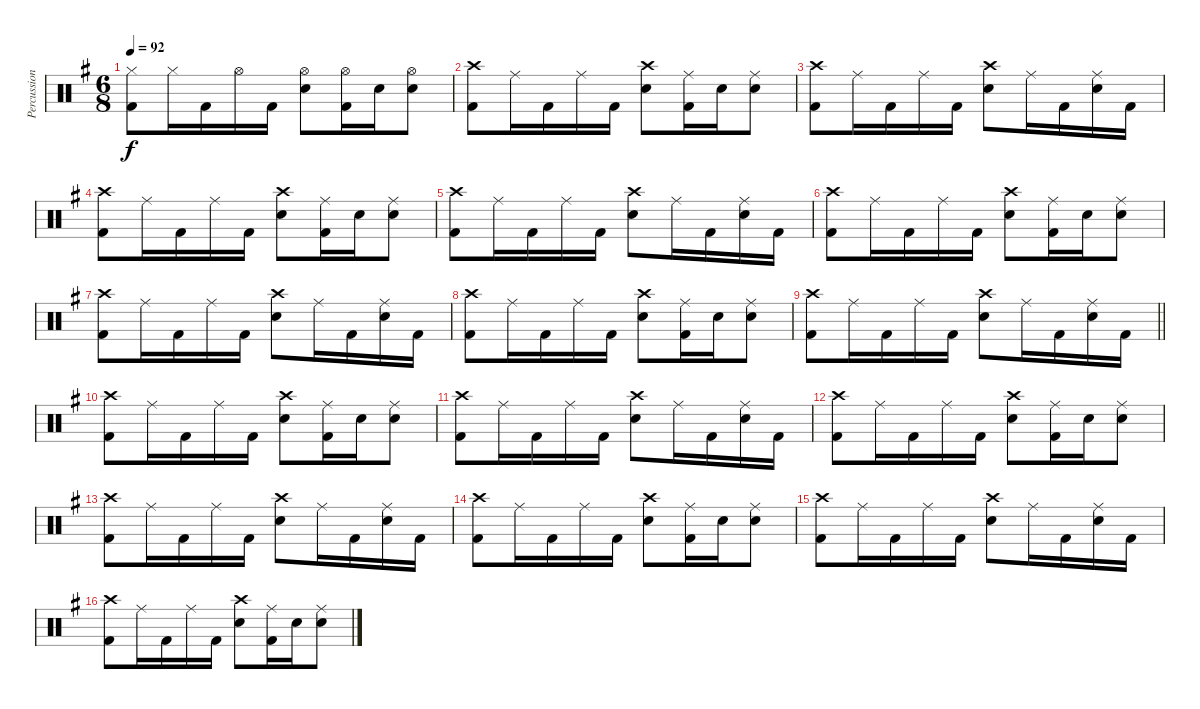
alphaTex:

\track ("Percussion" "Percussion") {instrument percussion}
\staff {score}
\articulation defaults
\ts (6 8)
\tempo 92
\clef neutral
\ks g
("Hi-Hat (closed)" "Kick (hit) 2").8{dy f} "Hi-Hat (closed)".16 "Kick (hit) 2".16 "Hi-Hat (open)".16 "Kick (hit) 2".16 ("Hi-Hat (open)" "Electric Snare (hit)").8 ("Hi-Hat (open)" "Kick (hit) 2").16 "Electric Snare (hit)".16 ("Electric Snare (hit)" "Hi-Hat (open)").8 |
("Crash high (hit)" "Kick (hit) 2").8 "Ride (middle)".16 "Kick (hit) 2".16 "Ride (middle)".16 "Kick (hit) 2".16 ("Electric Snare (hit)" "Crash high (hit)").8 ("Kick (hit) 2" "Ride (middle)").16 "Electric Snare (hit)".16 ("Electric Snare (hit)" "Ride (middle)").8 |
("Crash high (hit)" "Kick (hit) 2").8 "Ride (middle)".16 "Kick (hit) 2".16 "Ride (middle)".16 "Kick (hit) 2".16 ("Electric Snare (hit)" "Crash high (hit)").8 "Ride (middle)".16 "Kick (hit) 2".16 ("Electric Snare (hit)" "Ride (middle)").16 "Kick (hit) 2".16 |
("Crash high (hit)" "Kick (hit) 2").8 "Ride (middle)".16 "Kick (hit) 2".16 "Ride (middle)".16 "Kick (hit) 2".16 ("Electric Snare (hit)" "Crash high (hit)").8 ("Kick (hit) 2" "Ride (middle)").16 "Electric Snare (hit)".16 ("Electric Snare (hit)" "Ride (middle)").8 |
("Crash high (hit)" "Kick (hit) 2").8 "Ride (middle)".16 "Kick (hit) 2".16 "Ride (middle)".16 "Kick (hit) 2".16 ("Electric Snare (hit)" "Crash high (hit)").8 "Ride (middle)".16 "Kick (hit) 2".16 ("Electric Snare (hit)" "Ride (middle)").16 "Kick (hit) 2".16 |
("Crash high (hit)" "Kick (hit) 2").8 "Ride (middle)".16 "Kick (hit) 2".16 "Ride (middle)".16 "Kick (hit) 2".16 ("Electric Snare (hit)" "Crash high (hit)").8 ("Kick (hit) 2" "Ride (middle)").16 "Electric Snare (hit)".16 ("Electric Snare (hit)" "Ride (middle)").8 |
("Crash high (hit)" "Kick (hit) 2").8 "Ride (middle)".16 "Kick (hit) 2".16 "Ride (middle)".16 "Kick (hit) 2".16 ("Electric Snare (hit)" "Crash high (hit)").8 "Ride (middle)".16 "Kick (hit) 2".16 ("Electric Snare (hit)" "Ride (middle)").16 "Kick (hit) 2".16 |
("Crash high (hit)" "Kick (hit) 2").8 "Ride (middle)".16 "Kick (hit) 2".16 "Ride (middle)".16 "Kick (hit) 2".16 ("Electric Snare (hit)" "Crash high (hit)").8 ("Kick (hit) 2" "Ride (middle)").16 "Electric Snare (hit)".16 ("Electric Snare (hit)" "Ride (middle)").8 |
\barLineRight lightlight
("Crash high (hit)" "Kick (hit) 2").8 "Ride (middle)".16 "Kick (hit) 2".16 "Ride (middle)".16 "Kick (hit) 2".16 ("Electric Snare (hit)" "Crash high (hit)").8 "Ride (middle)".16 "Kick (hit) 2".16 ("Electric Snare (hit)" "Ride (middle)").16 "Kick (hit) 2".16 |
("Crash high (hit)" "Kick (hit) 2").8 "Ride (middle)".16 "Kick (hit) 2".16 "Ride (middle)".16 "Kick (hit) 2".16 ("Electric Snare (hit)" "Crash high (hit)").8 ("Kick (hit) 2" "Ride (middle)").16 "Electric Snare (hit)".16 ("Electric Snare (hit)" "Ride (middle)").8 |
("Crash high (hit)" "Kick (hit) 2").8 "Ride (middle)".16 "Kick (hit) 2".16 "Ride (middle)".16 "Kick (hit) 2".16 ("Electric Snare (hit)" "Crash high (hit)").8 "Ride (middle)".16 "Kick (hit) 2".16 ("Electric Snare (hit)" "Ride (middle)").16 "Kick (hit) 2".16 |
("Crash high (hit)" "Kick (hit) 2").8 "Ride (middle)".16 "Kick (hit) 2".16 "Ride (middle)".16 "Kick (hit) 2".16 ("Electric Snare (hit)" "Crash high (hit)").8 ("Kick (hit) 2" "Ride (middle)").16 "Electric Snare (hit)".16 ("Electric Snare (hit)" "Ride (middle)").8 |
("Crash high (hit)" "Kick (hit) 2").8 "Ride (middle)".16 "Kick (hit) 2".16 "Ride (middle)".16 "Kick (hit) 2".16 ("Electric Snare (hit)" "Crash high (hit)").8 "Ride (middle)".16 "Kick (hit) 2".16 ("Electric Snare (hit)" "Ride (middle)").16 "Kick (hit) 2".16 |
("Crash high (hit)" "Kick (hit) 2").8 "Ride (middle)".16 "Kick (hit) 2".16 "Ride (middle)".16 "Kick (hit) 2".16 ("Electric Snare (hit)" "Crash high (hit)").8 ("Kick (hit) 2" "Ride (middle)").16 "Electric Snare (hit)".16 ("Electric Snare (hit)" "Ride (middle)").8 |
("Crash high (hit)" "Kick (hit) 2").8 "Ride (middle)".16 "Kick (hit) 2".16 "Ride (middle)".16 "Kick (hit) 2".16 ("Electric Snare (hit)" "Crash high (hit)").8 "Ride (middle)".16 "Kick (hit) 2".16 ("Electric Snare (hit)" "Ride (middle)").16 "Kick (hit) 2".16 |
("Crash high (hit)" "Kick (hit) 2").8 "Ride (middle)".16 "Kick (hit) 2".16 "Ride (middle)".16 "Kick (hit) 2".16 ("Electric Snare (hit)" "Crash high (hit)").8 ("Kick (hit) 2" "Ride (middle)").16 "Electric Snare (hit)".16 ("Electric Snare (hit)" "Ride (middle)").8
